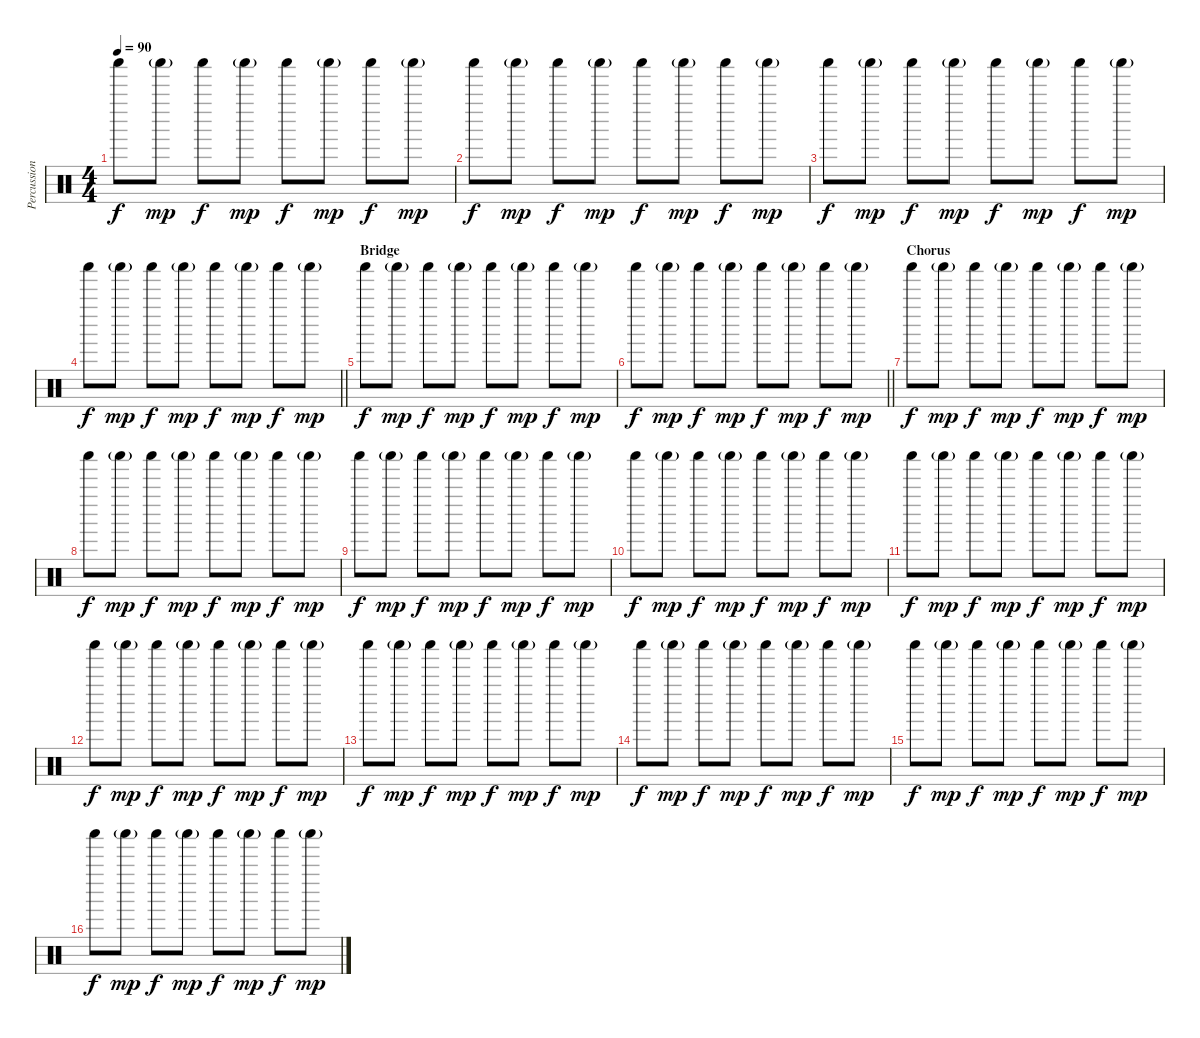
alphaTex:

\track ("Percussion 2" "Percussion") {instrument percussion}
\staff {score}
\articulation defaults
\ts (4 4)
\tempo 90
\clef neutral
\ks c "Shaker (hit)".8{dy f} "Shaker (hit)"{g}.8{dy mp} "Shaker (hit)".8{dy f} "Shaker (hit)"{g}.8{dy mp} "Shaker (hit)".8{dy f} "Shaker (hit)"{g}.8{dy mp} "Shaker (hit)".8{dy f} "Shaker (hit)"{g}.8{dy mp}
|
"Shaker (hit)".8{dy f} "Shaker (hit)"{g}.8{dy mp} "Shaker (hit)".8{dy f} "Shaker (hit)"{g}.8{dy mp} "Shaker (hit)".8{dy f} "Shaker (hit)"{g}.8{dy mp} "Shaker (hit)".8{dy f} "Shaker (hit)"{g}.8{dy mp} |
"Shaker (hit)".8{dy f} "Shaker (hit)"{g}.8{dy mp} "Shaker (hit)".8{dy f} "Shaker (hit)"{g}.8{dy mp} "Shaker (hit)".8{dy f} "Shaker (hit)"{g}.8{dy mp} "Shaker (hit)".8{dy f} "Shaker (hit)"{g}.8{dy mp} |
\barLineRight lightlight "Shaker (hit)".8{dy f} "Shaker (hit)"{g}.8{dy mp} "Shaker (hit)".8{dy f} "Shaker (hit)"{g}.8{dy mp} "Shaker (hit)".8{dy f} "Shaker (hit)"{g}.8{dy mp} "Shaker (hit)".8{dy f} "Shaker (hit)"{g}.8{dy mp}
|
\section ("" "Bridge")
"Shaker (hit)".8{dy f} "Shaker (hit)"{g}.8{dy mp} "Shaker (hit)".8{dy f} "Shaker (hit)"{g}.8{dy mp} "Shaker (hit)".8{dy f} "Shaker (hit)"{g}.8{dy mp} "Shaker (hit)".8{dy f} "Shaker (hit)"{g}.8{dy mp} |
\barLineRight lightlight "Shaker (hit)".8{dy f} "Shaker (hit)"{g}.8{dy mp} "Shaker (hit)".8{dy f} "Shaker (hit)"{g}.8{dy mp} "Shaker (hit)".8{dy f} "Shaker (hit)"{g}.8{dy mp} "Shaker (hit)".8{dy f} "Shaker (hit)"{g}.8{dy mp}
|
\section ("" "Chorus")
"Shaker (hit)".8{dy f} "Shaker (hit)"{g}.8{dy mp} "Shaker (hit)".8{dy f} "Shaker (hit)"{g}.8{dy mp} "Shaker (hit)".8{dy f} "Shaker (hit)"{g}.8{dy mp} "Shaker (hit)".8{dy f} "Shaker (hit)"{g}.8{dy mp} |
"Shaker (hit)".8{dy f} "Shaker (hit)"{g}.8{dy mp} "Shaker (hit)".8{dy f} "Shaker (hit)"{g}.8{dy mp} "Shaker (hit)".8{dy f} "Shaker (hit)"{g}.8{dy mp} "Shaker (hit)".8{dy f} "Shaker (hit)"{g}.8{dy mp} |
"Shaker (hit)".8{dy f} "Shaker (hit)"{g}.8{dy mp} "Shaker (hit)".8{dy f} "Shaker (hit)"{g}.8{dy mp} "Shaker (hit)".8{dy f} "Shaker (hit)"{g}.8{dy mp} "Shaker (hit)".8{dy f} "Shaker (hit)"{g}.8{dy mp} |
"Shaker (hit)".8{dy f} "Shaker (hit)"{g}.8{dy mp} "Shaker (hit)".8{dy f} "Shaker (hit)"{g}.8{dy mp} "Shaker (hit)".8{dy f} "Shaker (hit)"{g}.8{dy mp} "Shaker (hit)".8{dy f} "Shaker (hit)"{g}.8{dy mp} |
"Shaker (hit)".8{dy f} "Shaker (hit)"{g}.8{dy mp} "Shaker (hit)".8{dy f} "Shaker (hit)"{g}.8{dy mp} "Shaker (hit)".8{dy f} "Shaker (hit)"{g}.8{dy mp} "Shaker (hit)".8{dy f} "Shaker (hit)"{g}.8{dy mp} |
"Shaker (hit)".8{dy f} "Shaker (hit)"{g}.8{dy mp} "Shaker (hit)".8{dy f} "Shaker (hit)"{g}.8{dy mp} "Shaker (hit)".8{dy f} "Shaker (hit)"{g}.8{dy mp} "Shaker (hit)".8{dy f} "Shaker (hit)"{g}.8{dy mp} |
"Shaker (hit)".8{dy f} "Shaker (hit)"{g}.8{dy mp} "Shaker (hit)".8{dy f} "Shaker (hit)"{g}.8{dy mp} "Shaker (hit)".8{dy f} "Shaker (hit)"{g}.8{dy mp} "Shaker (hit)".8{dy f} "Shaker (hit)"{g}.8{dy mp} |
"Shaker (hit)".8{dy f} "Shaker (hit)"{g}.8{dy mp} "Shaker (hit)".8{dy f} "Shaker (hit)"{g}.8{dy mp} "Shaker (hit)".8{dy f} "Shaker (hit)"{g}.8{dy mp} "Shaker (hit)".8{dy f} "Shaker (hit)"{g}.8{dy mp} |
"Shaker (hit)".8{dy f} "Shaker (hit)"{g}.8{dy mp} "Shaker (hit)".8{dy f} "Shaker (hit)"{g}.8{dy mp} "Shaker (hit)".8{dy f} "Shaker (hit)"{g}.8{dy mp} "Shaker (hit)".8{dy f} "Shaker (hit)"{g}.8{dy mp} |
"Shaker (hit)".8{dy f} "Shaker (hit)"{g}.8{dy mp} "Shaker (hit)".8{dy f} "Shaker (hit)"{g}.8{dy mp} "Shaker (hit)".8{dy f} "Shaker (hit)"{g}.8{dy mp} "Shaker (hit)".8{dy f} "Shaker (hit)"{g}.8{dy mp}
